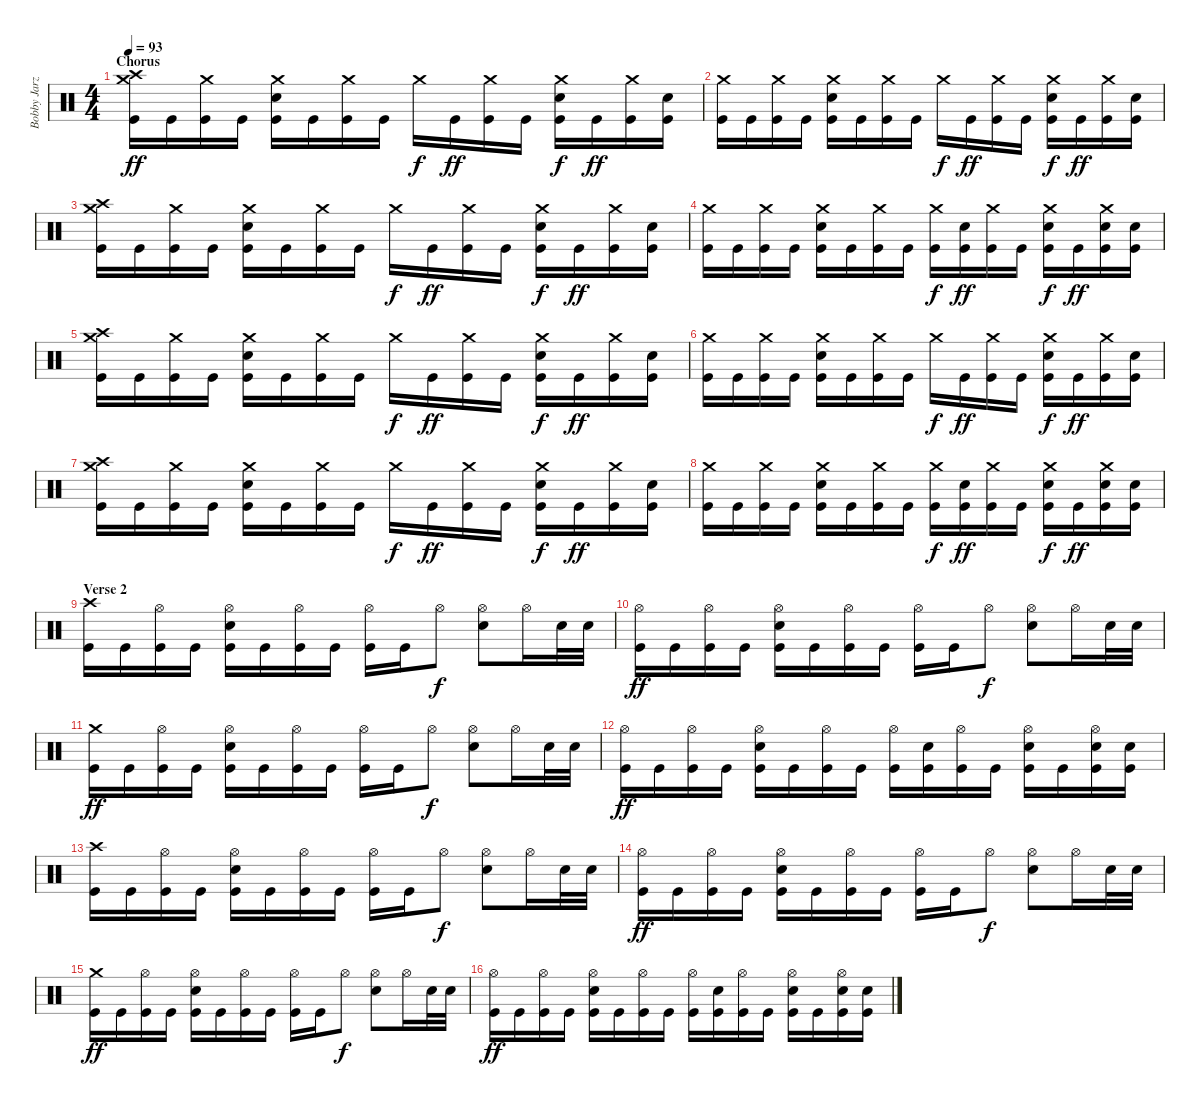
\track ("Bobby Jarzombek" "Bobby Jarz") {instrument percussion}
\staff {score}
\articulation defaults
\ts (4 4)
\section ("" "Chorus")
\tempo 93
\clef neutral
\ks c
("Crash high (hit)" "Crash medium (hit)" "Kick (hit)").16{dy ff} "Kick (hit)".16 ("Crash medium (hit)" "Kick (hit)").16 "Kick (hit)".16 ("Crash medium (hit)" "Electric Snare (hit)" "Kick (hit)").16 "Kick (hit)".16 ("Crash medium (hit)" "Kick (hit)").16 "Kick (hit)".16 "Crash medium (hit)".16{dy f} "Kick (hit)".16{dy ff} ("Crash medium (hit)" "Kick (hit)").16 "Kick (hit)".16 ("Crash medium (hit)" "Electric Snare (hit)" "Kick (hit)").16{dy f} "Kick (hit)".16{dy ff} ("Crash medium (hit)" "Kick (hit)").16 ("Electric Snare (hit)" "Kick (hit)").16 |
("Crash medium (hit)" "Kick (hit)").16 "Kick (hit)".16 ("Crash medium (hit)" "Kick (hit)").16 "Kick (hit)".16 ("Crash medium (hit)" "Electric Snare (hit)" "Kick (hit)").16 "Kick (hit)".16 ("Crash medium (hit)" "Kick (hit)").16 "Kick (hit)".16 "Crash medium (hit)".16{dy f} "Kick (hit)".16{dy ff} ("Crash medium (hit)" "Kick (hit)").16 "Kick (hit)".16 ("Crash medium (hit)" "Electric Snare (hit)" "Kick (hit)").16{dy f} "Kick (hit)".16{dy ff} ("Crash medium (hit)" "Kick (hit)").16 ("Electric Snare (hit)" "Kick (hit)").16 |
("Crash high (hit)" "Crash medium (hit)" "Kick (hit)").16 "Kick (hit)".16 ("Crash medium (hit)" "Kick (hit)").16 "Kick (hit)".16 ("Crash medium (hit)" "Electric Snare (hit)" "Kick (hit)").16 "Kick (hit)".16 ("Crash medium (hit)" "Kick (hit)").16 "Kick (hit)".16 "Crash medium (hit)".16{dy f} "Kick (hit)".16{dy ff} ("Crash medium (hit)" "Kick (hit)").16 "Kick (hit)".16 ("Crash medium (hit)" "Electric Snare (hit)" "Kick (hit)").16{dy f} "Kick (hit)".16{dy ff} ("Crash medium (hit)" "Kick (hit)").16 ("Electric Snare (hit)" "Kick (hit)").16 |
("Crash medium (hit)" "Kick (hit)").16 "Kick (hit)".16 ("Crash medium (hit)" "Kick (hit)").16 "Kick (hit)".16 ("Crash medium (hit)" "Electric Snare (hit)" "Kick (hit)").16 "Kick (hit)".16 ("Crash medium (hit)" "Kick (hit)").16 "Kick (hit)".16 ("Crash medium (hit)" "Kick (hit)").16{dy f} ("Electric Snare (hit)" "Kick (hit)").16{dy ff} ("Crash medium (hit)" "Kick (hit)").16 "Kick (hit)".16 ("Crash medium (hit)" "Electric Snare (hit)" "Kick (hit)").16{dy f} "Kick (hit)".16{dy ff} ("Crash medium (hit)" "Electric Snare (hit)" "Kick (hit)").16 ("Electric Snare (hit)" "Kick (hit)").16 |
("Crash high (hit)" "Crash medium (hit)" "Kick (hit)").16 "Kick (hit)".16 ("Crash medium (hit)" "Kick (hit)").16 "Kick (hit)".16 ("Crash medium (hit)" "Electric Snare (hit)" "Kick (hit)").16 "Kick (hit)".16 ("Crash medium (hit)" "Kick (hit)").16 "Kick (hit)".16 "Crash medium (hit)".16{dy f} "Kick (hit)".16{dy ff} ("Crash medium (hit)" "Kick (hit)").16 "Kick (hit)".16 ("Crash medium (hit)" "Electric Snare (hit)" "Kick (hit)").16{dy f} "Kick (hit)".16{dy ff} ("Crash medium (hit)" "Kick (hit)").16 ("Electric Snare (hit)" "Kick (hit)").16 |
("Crash medium (hit)" "Kick (hit)").16 "Kick (hit)".16 ("Crash medium (hit)" "Kick (hit)").16 "Kick (hit)".16 ("Crash medium (hit)" "Electric Snare (hit)" "Kick (hit)").16 "Kick (hit)".16 ("Crash medium (hit)" "Kick (hit)").16 "Kick (hit)".16 "Crash medium (hit)".16{dy f} "Kick (hit)".16{dy ff} ("Crash medium (hit)" "Kick (hit)").16 "Kick (hit)".16 ("Crash medium (hit)" "Electric Snare (hit)" "Kick (hit)").16{dy f} "Kick (hit)".16{dy ff} ("Crash medium (hit)" "Kick (hit)").16 ("Electric Snare (hit)" "Kick (hit)").16 |
("Crash high (hit)" "Crash medium (hit)" "Kick (hit)").16 "Kick (hit)".16 ("Crash medium (hit)" "Kick (hit)").16 "Kick (hit)".16 ("Crash medium (hit)" "Electric Snare (hit)" "Kick (hit)").16 "Kick (hit)".16 ("Crash medium (hit)" "Kick (hit)").16 "Kick (hit)".16 "Crash medium (hit)".16{dy f} "Kick (hit)".16{dy ff} ("Crash medium (hit)" "Kick (hit)").16 "Kick (hit)".16 ("Crash medium (hit)" "Electric Snare (hit)" "Kick (hit)").16{dy f} "Kick (hit)".16{dy ff} ("Crash medium (hit)" "Kick (hit)").16 ("Electric Snare (hit)" "Kick (hit)").16 |
("Crash medium (hit)" "Kick (hit)").16 "Kick (hit)".16 ("Crash medium (hit)" "Kick (hit)").16 "Kick (hit)".16 ("Crash medium (hit)" "Electric Snare (hit)" "Kick (hit)").16 "Kick (hit)".16 ("Crash medium (hit)" "Kick (hit)").16 "Kick (hit)".16 ("Crash medium (hit)" "Kick (hit)").16{dy f} ("Electric Snare (hit)" "Kick (hit)").16{dy ff} ("Crash medium (hit)" "Kick (hit)").16 "Kick (hit)".16 ("Crash medium (hit)" "Electric Snare (hit)" "Kick (hit)").16{dy f} "Kick (hit)".16{dy ff} ("Crash medium (hit)" "Electric Snare (hit)" "Kick (hit)").16 ("Electric Snare (hit)" "Kick (hit)").16 |
\section ("" "Verse 2")
("Crash high (hit)" "Kick (hit)").16 "Kick (hit)".16 ("Hi-Hat (open)" "Kick (hit)").16 "Kick (hit)".16 ("Hi-Hat (open)" "Electric Snare (hit)" "Kick (hit)").16 "Kick (hit)".16 ("Hi-Hat (open)" "Kick (hit)").16 "Kick (hit)".16 ("Hi-Hat (open)" "Kick (hit)").16 "Kick (hit)".16 "Hi-Hat (open)".8{dy f} ("Hi-Hat (open)" "Electric Snare (hit)").8 "Hi-Hat (open)".16 "Electric Snare (hit)".32 "Electric Snare (hit)".32 |
("Hi-Hat (open)" "Kick (hit)").16{dy ff} "Kick (hit)".16 ("Hi-Hat (open)" "Kick (hit)").16 "Kick (hit)".16 ("Hi-Hat (open)" "Electric Snare (hit)" "Kick (hit)").16 "Kick (hit)".16 ("Hi-Hat (open)" "Kick (hit)").16 "Kick (hit)".16 ("Hi-Hat (open)" "Kick (hit)").16 "Kick (hit)".16 "Hi-Hat (open)".8{dy f} ("Hi-Hat (open)" "Electric Snare (hit)").8 "Hi-Hat (open)".16 "Electric Snare (hit)".32 "Electric Snare (hit)".32 |
("Crash medium (hit)" "Kick (hit)").16{dy ff} "Kick (hit)".16 ("Hi-Hat (open)" "Kick (hit)").16 "Kick (hit)".16 ("Hi-Hat (open)" "Electric Snare (hit)" "Kick (hit)").16 "Kick (hit)".16 ("Hi-Hat (open)" "Kick (hit)").16 "Kick (hit)".16 ("Hi-Hat (open)" "Kick (hit)").16 "Kick (hit)".16 "Hi-Hat (open)".8{dy f} ("Hi-Hat (open)" "Electric Snare (hit)").8 "Hi-Hat (open)".16 "Electric Snare (hit)".32 "Electric Snare (hit)".32 |
("Hi-Hat (open)" "Kick (hit)").16{dy ff} "Kick (hit)".16 ("Hi-Hat (open)" "Kick (hit)").16 "Kick (hit)".16 ("Hi-Hat (open)" "Electric Snare (hit)" "Kick (hit)").16 "Kick (hit)".16 ("Hi-Hat (open)" "Kick (hit)").16 "Kick (hit)".16 ("Hi-Hat (open)" "Kick (hit)").16 ("Electric Snare (hit)" "Kick (hit)").16 ("Hi-Hat (open)" "Kick (hit)").16 "Kick (hit)".16 ("Hi-Hat (open)" "Electric Snare (hit)" "Kick (hit)").16 "Kick (hit)".16 ("Hi-Hat (open)" "Electric Snare (hit)" "Kick (hit)").16 ("Electric Snare (hit)" "Kick (hit)").16 |
("Crash high (hit)" "Kick (hit)").16 "Kick (hit)".16 ("Hi-Hat (open)" "Kick (hit)").16 "Kick (hit)".16 ("Hi-Hat (open)" "Electric Snare (hit)" "Kick (hit)").16 "Kick (hit)".16 ("Hi-Hat (open)" "Kick (hit)").16 "Kick (hit)".16 ("Hi-Hat (open)" "Kick (hit)").16 "Kick (hit)".16 "Hi-Hat (open)".8{dy f} ("Hi-Hat (open)" "Electric Snare (hit)").8 "Hi-Hat (open)".16 "Electric Snare (hit)".32 "Electric Snare (hit)".32 |
("Hi-Hat (open)" "Kick (hit)").16{dy ff} "Kick (hit)".16 ("Hi-Hat (open)" "Kick (hit)").16 "Kick (hit)".16 ("Hi-Hat (open)" "Electric Snare (hit)" "Kick (hit)").16 "Kick (hit)".16 ("Hi-Hat (open)" "Kick (hit)").16 "Kick (hit)".16 ("Hi-Hat (open)" "Kick (hit)").16 "Kick (hit)".16 "Hi-Hat (open)".8{dy f} ("Hi-Hat (open)" "Electric Snare (hit)").8 "Hi-Hat (open)".16 "Electric Snare (hit)".32 "Electric Snare (hit)".32 |
("Crash medium (hit)" "Kick (hit)").16{dy ff} "Kick (hit)".16 ("Hi-Hat (open)" "Kick (hit)").16 "Kick (hit)".16 ("Hi-Hat (open)" "Electric Snare (hit)" "Kick (hit)").16 "Kick (hit)".16 ("Hi-Hat (open)" "Kick (hit)").16 "Kick (hit)".16 ("Hi-Hat (open)" "Kick (hit)").16 "Kick (hit)".16 "Hi-Hat (open)".8{dy f} ("Hi-Hat (open)" "Electric Snare (hit)").8 "Hi-Hat (open)".16 "Electric Snare (hit)".32 "Electric Snare (hit)".32 |
("Hi-Hat (open)" "Kick (hit)").16{dy ff} "Kick (hit)".16 ("Hi-Hat (open)" "Kick (hit)").16 "Kick (hit)".16 ("Hi-Hat (open)" "Electric Snare (hit)" "Kick (hit)").16 "Kick (hit)".16 ("Hi-Hat (open)" "Kick (hit)").16 "Kick (hit)".16 ("Hi-Hat (open)" "Kick (hit)").16 ("Electric Snare (hit)" "Kick (hit)").16 ("Hi-Hat (open)" "Kick (hit)").16 "Kick (hit)".16 ("Hi-Hat (open)" "Electric Snare (hit)" "Kick (hit)").16 "Kick (hit)".16 ("Hi-Hat (open)" "Electric Snare (hit)" "Kick (hit)").16 ("Electric Snare (hit)" "Kick (hit)").16
